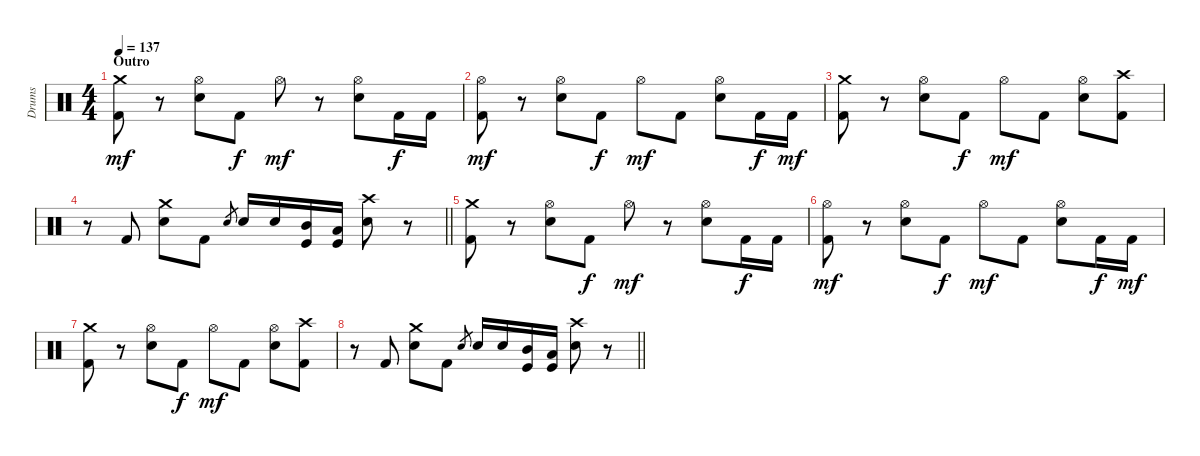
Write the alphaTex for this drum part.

\track ("Drums" "Drums") {instrument percussion}
\staff {score}
\articulation defaults
\ts (4 4)
\section ("" "Outro")
\tempo 137
\clef neutral
\ks c
("Crash medium (hit)" "Kick (hit) 2").8{dy mf} r.8 ("Hi-Hat (open)" "Electric Snare (hit)").8 "Kick (hit) 2".8{dy f} "Hi-Hat (open)".8{dy mf} r.8 ("Hi-Hat (open)" "Electric Snare (hit)").8 "Kick (hit) 2".16{dy f} "Kick (hit) 2".16 |
("Hi-Hat (open)" "Kick (hit) 2").8{dy mf} r.8 ("Hi-Hat (open)" "Electric Snare (hit)").8 "Kick (hit) 2".8{dy f} "Hi-Hat (open)".8{dy mf} "Kick (hit) 2".8 ("Hi-Hat (open)" "Electric Snare (hit)").8 "Kick (hit) 2".16{dy f} "Kick (hit) 2".16{dy mf} |
("Crash medium (hit)" "Kick (hit) 2").8 r.8 ("Hi-Hat (open)" "Electric Snare (hit)").8 "Kick (hit) 2".8{dy f} "Hi-Hat (open)".8{dy mf} "Kick (hit) 2".8 ("Hi-Hat (open)" "Electric Snare (hit)").8 ("Crash high (hit)" "Kick (hit) 2").8 |
\barLineRight lightlight
r.8 "Kick (hit) 2".8 ("Crash medium (hit)" "Electric Snare (hit)").8 "Kick (hit) 2".8 "Electric Snare (hit)".8{gr} "Electric Snare (hit)".16 "Electric Snare (hit)".16 ("Mid Tom (hit)" "Kick (hit)").16 ("Low Tom (hit)" "Kick (hit)").16 ("Crash high (hit)" "Electric Snare (hit)").8 r.8 |
("Crash medium (hit)" "Kick (hit) 2").8 r.8 ("Hi-Hat (open)" "Electric Snare (hit)").8 "Kick (hit) 2".8{dy f} "Hi-Hat (open)".8{dy mf} r.8 ("Hi-Hat (open)" "Electric Snare (hit)").8 "Kick (hit) 2".16{dy f} "Kick (hit) 2".16 |
("Hi-Hat (open)" "Kick (hit) 2").8{dy mf} r.8 ("Hi-Hat (open)" "Electric Snare (hit)").8 "Kick (hit) 2".8{dy f} "Hi-Hat (open)".8{dy mf} "Kick (hit) 2".8 ("Hi-Hat (open)" "Electric Snare (hit)").8 "Kick (hit) 2".16{dy f} "Kick (hit) 2".16{dy mf} |
("Crash medium (hit)" "Kick (hit) 2").8 r.8 ("Hi-Hat (open)" "Electric Snare (hit)").8 "Kick (hit) 2".8{dy f} "Hi-Hat (open)".8{dy mf} "Kick (hit) 2".8 ("Hi-Hat (open)" "Electric Snare (hit)").8 ("Crash high (hit)" "Kick (hit) 2").8 |
\barLineRight lightlight
r.8 "Kick (hit) 2".8 ("Crash medium (hit)" "Electric Snare (hit)").8 "Kick (hit) 2".8 "Electric Snare (hit)".8{gr} "Electric Snare (hit)".16 "Electric Snare (hit)".16 ("Mid Tom (hit)" "Kick (hit)").16 ("Low Tom (hit)" "Kick (hit)").16 ("Crash high (hit)" "Electric Snare (hit)").8 r.8
